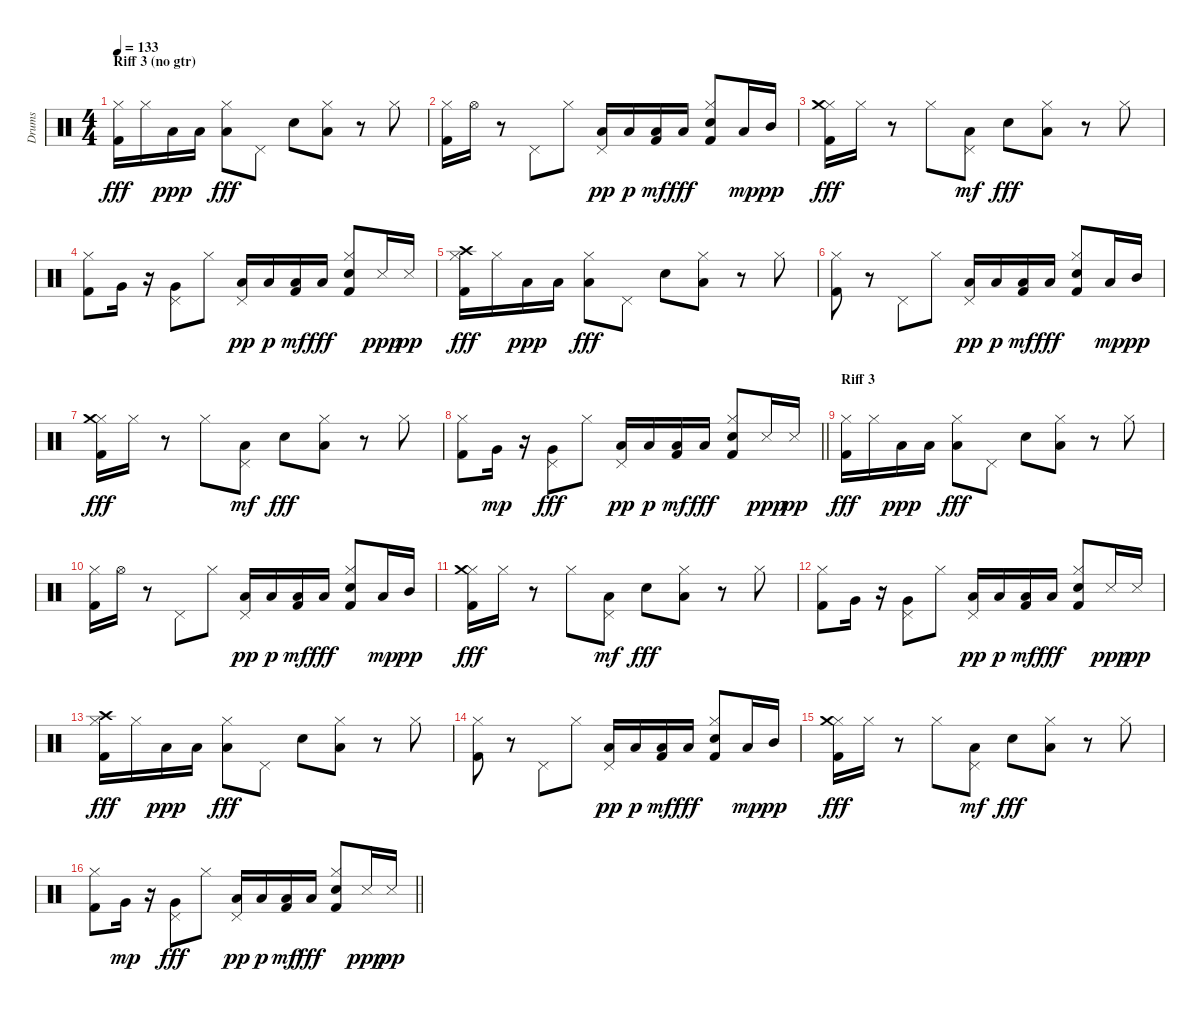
\track ("Drums" "Drums") {instrument percussion}
\staff {score}
\articulation defaults
\ts (4 4)
\section ("" "Riff 3 (no gtr)")
\tempo 133
\clef neutral
\ks c
("Kick (hit) 2" "Hi-Hat (closed)").16{dy fff} "Hi-Hat (closed)".16 "Low Tom (hit)".16{dy ppp} "Low Tom (hit)".16 ("Hi-Hat (closed)" "Low Tom (hit)").8{dy fff} "Pedal Hi-Hat (hit)".8 "Snare (hit) 2".8 ("Hi-Hat (closed)" "Low Tom (hit)").8 r.8 "Hi-Hat (closed)".8 |
("Kick (hit) 2" "Hi-Hat (closed)").16 "Hi-Hat (open)".16 r.8 "Pedal Hi-Hat (hit)".8 "Hi-Hat (closed)".8 ("Pedal Hi-Hat (hit)" "Low Tom (hit)").16{dy pp} "Low Tom (hit)".16{dy p} ("Kick (hit) 2" "Low Tom (hit)").16{dy mf} "Low Tom (hit)".16{dy fff} ("Kick (hit) 2" "Snare (hit) 2" "Hi-Hat (closed)").8 "Low Tom (hit)".16{dy mp} "Mid Tom (hit)".16{dy pp} |
("Kick (hit) 2" "Hi-Hat (closed)" "Crash medium (hit)").16{dy fff} "Hi-Hat (closed)".16 r.8 "Hi-Hat (closed)".8 ("Pedal Hi-Hat (hit)" "Low Tom (hit)").8{dy mf} "Snare (hit) 2".8{dy fff} ("Hi-Hat (closed)" "Low Tom (hit)").8 r.8 "Hi-Hat (closed)".8 |
("Kick (hit) 2" "Hi-Hat (closed)").8 "Very Low Tom (hit)".16 r.16 ("Pedal Hi-Hat (hit)" "Very Low Tom (hit)").8 "Hi-Hat (closed)".8 ("Pedal Hi-Hat (hit)" "Low Tom (hit)").16{dy pp} "Low Tom (hit)".16{dy p} ("Kick (hit) 2" "Low Tom (hit)").16{dy mf} "Low Tom (hit)".16{dy fff} ("Kick (hit) 2" "Snare (hit) 2" "Hi-Hat (closed)").8 "Snare (side stick) 3".16{dy ppp} "Snare (side stick) 3".16{dy pp} |
("Kick (hit) 2" "Hi-Hat (closed)" "Crash high (hit)").16{dy fff} "Hi-Hat (closed)".16 "Low Tom (hit)".16{dy ppp} "Low Tom (hit)".16 ("Hi-Hat (closed)" "Low Tom (hit)").8{dy fff} "Pedal Hi-Hat (hit)".8 "Snare (hit) 2".8 ("Hi-Hat (closed)" "Low Tom (hit)").8 r.8 "Hi-Hat (closed)".8 |
("Kick (hit) 2" "Hi-Hat (closed)").8 r.8 "Pedal Hi-Hat (hit)".8 "Hi-Hat (closed)".8 ("Pedal Hi-Hat (hit)" "Low Tom (hit)").16{dy pp} "Low Tom (hit)".16{dy p} ("Kick (hit) 2" "Low Tom (hit)").16{dy mf} "Low Tom (hit)".16{dy fff} ("Kick (hit) 2" "Snare (hit) 2" "Hi-Hat (closed)").8 "Low Tom (hit)".16{dy mp} "Mid Tom (hit)".16{dy pp} |
("Kick (hit) 2" "Hi-Hat (closed)" "Crash medium (hit)").16{dy fff} "Hi-Hat (closed)".16 r.8 "Hi-Hat (closed)".8 ("Pedal Hi-Hat (hit)" "Low Tom (hit)").8{dy mf} "Snare (hit) 2".8{dy fff} ("Hi-Hat (closed)" "Low Tom (hit)").8 r.8 "Hi-Hat (closed)".8 |
\barLineRight lightlight
("Kick (hit) 2" "Hi-Hat (closed)").8 "Very Low Tom (hit)".16{dy mp} r.16 ("Pedal Hi-Hat (hit)" "Very Low Tom (hit)").8{dy fff} "Hi-Hat (closed)".8 ("Pedal Hi-Hat (hit)" "Low Tom (hit)").16{dy pp} "Low Tom (hit)".16{dy p} ("Kick (hit) 2" "Low Tom (hit)").16{dy mf} "Low Tom (hit)".16{dy fff} ("Kick (hit) 2" "Snare (hit) 2" "Hi-Hat (closed)").8 "Snare (side stick) 3".16{dy ppp} "Snare (side stick) 3".16{dy pp} |
\section ("" "Riff 3")
("Kick (hit) 2" "Hi-Hat (closed)").16{dy fff} "Hi-Hat (closed)".16 "Low Tom (hit)".16{dy ppp} "Low Tom (hit)".16 ("Hi-Hat (closed)" "Low Tom (hit)").8{dy fff} "Pedal Hi-Hat (hit)".8 "Snare (hit) 2".8 ("Hi-Hat (closed)" "Low Tom (hit)").8 r.8 "Hi-Hat (closed)".8 |
("Kick (hit) 2" "Hi-Hat (closed)").16 "Hi-Hat (open)".16 r.8 "Pedal Hi-Hat (hit)".8 "Hi-Hat (closed)".8 ("Pedal Hi-Hat (hit)" "Low Tom (hit)").16{dy pp} "Low Tom (hit)".16{dy p} ("Kick (hit) 2" "Low Tom (hit)").16{dy mf} "Low Tom (hit)".16{dy fff} ("Kick (hit) 2" "Snare (hit) 2" "Hi-Hat (closed)").8 "Low Tom (hit)".16{dy mp} "Mid Tom (hit)".16{dy pp} |
("Kick (hit) 2" "Hi-Hat (closed)" "Crash medium (hit)").16{dy fff} "Hi-Hat (closed)".16 r.8 "Hi-Hat (closed)".8 ("Pedal Hi-Hat (hit)" "Low Tom (hit)").8{dy mf} "Snare (hit) 2".8{dy fff} ("Hi-Hat (closed)" "Low Tom (hit)").8 r.8 "Hi-Hat (closed)".8 |
("Kick (hit) 2" "Hi-Hat (closed)").8 "Very Low Tom (hit)".16 r.16 ("Pedal Hi-Hat (hit)" "Very Low Tom (hit)").8 "Hi-Hat (closed)".8 ("Pedal Hi-Hat (hit)" "Low Tom (hit)").16{dy pp} "Low Tom (hit)".16{dy p} ("Kick (hit) 2" "Low Tom (hit)").16{dy mf} "Low Tom (hit)".16{dy fff} ("Kick (hit) 2" "Snare (hit) 2" "Hi-Hat (closed)").8 "Snare (side stick) 3".16{dy ppp} "Snare (side stick) 3".16{dy pp} |
("Kick (hit) 2" "Hi-Hat (closed)" "Crash high (hit)").16{dy fff} "Hi-Hat (closed)".16 "Low Tom (hit)".16{dy ppp} "Low Tom (hit)".16 ("Hi-Hat (closed)" "Low Tom (hit)").8{dy fff} "Pedal Hi-Hat (hit)".8 "Snare (hit) 2".8 ("Hi-Hat (closed)" "Low Tom (hit)").8 r.8 "Hi-Hat (closed)".8 |
("Kick (hit) 2" "Hi-Hat (closed)").8 r.8 "Pedal Hi-Hat (hit)".8 "Hi-Hat (closed)".8 ("Pedal Hi-Hat (hit)" "Low Tom (hit)").16{dy pp} "Low Tom (hit)".16{dy p} ("Kick (hit) 2" "Low Tom (hit)").16{dy mf} "Low Tom (hit)".16{dy fff} ("Kick (hit) 2" "Snare (hit) 2" "Hi-Hat (closed)").8 "Low Tom (hit)".16{dy mp} "Mid Tom (hit)".16{dy pp} |
("Kick (hit) 2" "Hi-Hat (closed)" "Crash medium (hit)").16{dy fff} "Hi-Hat (closed)".16 r.8 "Hi-Hat (closed)".8 ("Pedal Hi-Hat (hit)" "Low Tom (hit)").8{dy mf} "Snare (hit) 2".8{dy fff} ("Hi-Hat (closed)" "Low Tom (hit)").8 r.8 "Hi-Hat (closed)".8 |
\barLineRight lightlight
("Kick (hit) 2" "Hi-Hat (closed)").8 "Very Low Tom (hit)".16{dy mp} r.16 ("Pedal Hi-Hat (hit)" "Very Low Tom (hit)").8{dy fff} "Hi-Hat (closed)".8 ("Pedal Hi-Hat (hit)" "Low Tom (hit)").16{dy pp} "Low Tom (hit)".16{dy p} ("Kick (hit) 2" "Low Tom (hit)").16{dy mf} "Low Tom (hit)".16{dy fff} ("Kick (hit) 2" "Snare (hit) 2" "Hi-Hat (closed)").8 "Snare (side stick) 3".16{dy ppp} "Snare (side stick) 3".16{dy pp}
